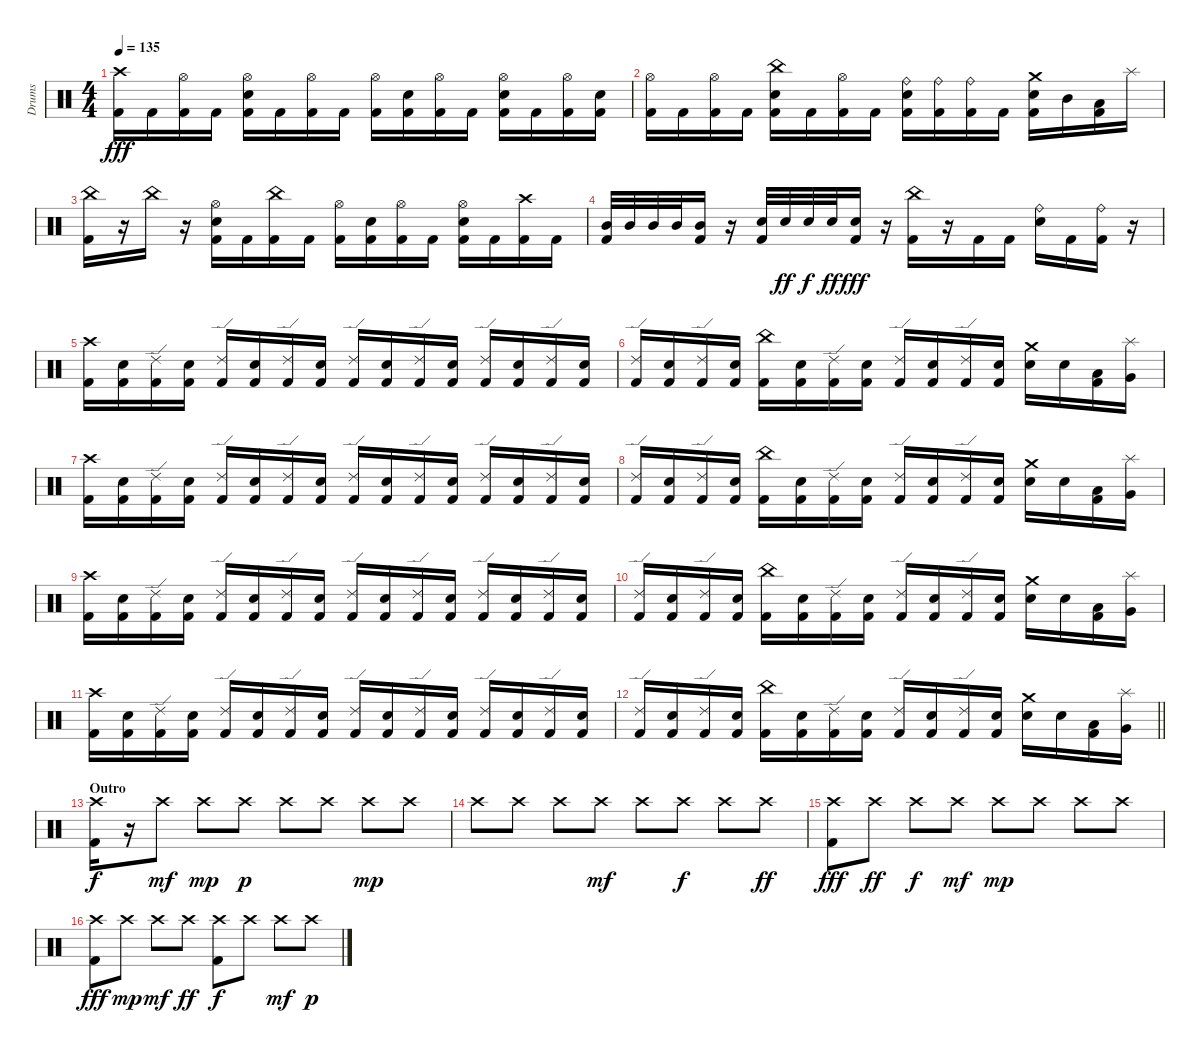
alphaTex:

\track ("Drums" "Drums") {instrument percussion}
\staff {score}
\articulation defaults
\ts (4 4)
\tempo 135
\clef neutral
\ks c
("Kick (hit) 2" "Crash high (hit)").16{dy fff} "Kick (hit) 2".16 ("Kick (hit) 2" "Hi-Hat (open)").16 "Kick (hit) 2".16 ("Kick (hit) 2" "Snare (hit) 2" "Hi-Hat (open)").16 "Kick (hit) 2".16 ("Kick (hit) 2" "Hi-Hat (open)").16 "Kick (hit) 2".16 ("Kick (hit) 2" "Hi-Hat (open)").16 ("Kick (hit) 2" "Snare (hit) 2").16 ("Kick (hit) 2" "Hi-Hat (open)").16 "Kick (hit) 2".16 ("Kick (hit) 2" "Snare (hit) 2" "Hi-Hat (open)").16 "Kick (hit) 2".16 ("Kick (hit) 2" "Hi-Hat (open)").16 ("Kick (hit) 2" "Snare (hit) 2").16 |
("Kick (hit) 2" "Hi-Hat (open)").16 "Kick (hit) 2".16 ("Kick (hit) 2" "Hi-Hat (open)").16 "Kick (hit) 2".16 ("Kick (hit) 2" "Snare (hit) 2" "China (hit)").16 "Kick (hit) 2".16 ("Kick (hit) 2" "Hi-Hat (open)").16 "Kick (hit) 2".16 ("Kick (hit) 2" "Snare (hit) 2" "Ride (bell)").16 ("Kick (hit) 2" "Ride (bell)").16 ("Kick (hit) 2" "Ride (bell)").16 "Kick (hit) 2".16 ("Kick (hit) 2" "Snare (hit) 2" "Crash medium (hit)").16 "Mid Tom (hit)".16 ("Kick (hit) 2" "Low Tom (hit)").16 "Splash (hit)".16 |
("Kick (hit) 2" "China (hit)").16 r.16 "China (hit)".16 r.16 ("Kick (hit) 2" "Snare (hit) 2" "Hi-Hat (open)").16 "Kick (hit) 2".16 ("Kick (hit) 2" "China (hit)").16 "Kick (hit) 2".16 ("Kick (hit) 2" "Hi-Hat (open)").16 ("Kick (hit) 2" "Snare (hit) 2").16 ("Kick (hit) 2" "Hi-Hat (open)").16 "Kick (hit) 2".16 ("Kick (hit) 2" "Snare (hit) 2" "Hi-Hat (open)").16 "Kick (hit) 2".16 ("Kick (hit) 2" "Crash high (hit)").16 "Kick (hit) 2".16 |
("Kick (hit) 2" "Mid Tom (hit)").32 "Mid Tom (hit)".32 "Mid Tom (hit)".32 "Mid Tom (hit)".32 ("Kick (hit) 2" "Mid Tom (hit)").16 r.16 ("Kick (hit) 2" "Snare (hit) 2").32 "Snare (hit) 2".32{dy ff} "Snare (hit) 2".32{dy f} "Snare (hit) 2".32{dy ff} ("Kick (hit) 2" "Snare (hit) 2").16{dy fff} r.16 ("Kick (hit) 2" "China (hit)").16 r.16 "Kick (hit) 2".16 "Kick (hit) 2".16 ("Snare (hit) 2" "Ride (bell)").16 "Kick (hit) 2".16 ("Kick (hit) 2" "Ride (bell)").16 r.16 |
("Kick (hit) 2" "Crash high (hit)").16 ("Kick (hit) 2" "Snare (hit) 2").16 ("Kick (hit) 2" "Ride (edge) 2").16 ("Kick (hit) 2" "Snare (hit) 2").16 ("Kick (hit) 2" "Ride (edge) 2").16 ("Kick (hit) 2" "Snare (hit) 2").16 ("Kick (hit) 2" "Ride (edge) 2").16 ("Kick (hit) 2" "Snare (hit) 2").16 ("Kick (hit) 2" "Ride (edge) 2").16 ("Kick (hit) 2" "Snare (hit) 2").16 ("Kick (hit) 2" "Ride (edge) 2").16 ("Kick (hit) 2" "Snare (hit) 2").16 ("Kick (hit) 2" "Ride (edge) 2").16 ("Kick (hit) 2" "Snare (hit) 2").16 ("Kick (hit) 2" "Ride (edge) 2").16 ("Kick (hit) 2" "Snare (hit) 2").16 |
("Kick (hit) 2" "Ride (edge) 2").16 ("Kick (hit) 2" "Snare (hit) 2").16 ("Kick (hit) 2" "Ride (edge) 2").16 ("Kick (hit) 2" "Snare (hit) 2").16 ("Kick (hit) 2" "China (hit)").16 ("Kick (hit) 2" "Snare (hit) 2").16 ("Kick (hit) 2" "Ride (edge) 2").16 ("Kick (hit) 2" "Snare (hit) 2").16 ("Kick (hit) 2" "Ride (edge) 2").16 ("Kick (hit) 2" "Snare (hit) 2").16 ("Kick (hit) 2" "Ride (edge) 2").16 ("Kick (hit) 2" "Snare (hit) 2").16 ("Snare (hit) 2" "Crash medium (hit)").16 "Snare (hit) 2".16 ("Kick (hit) 2" "Low Tom (hit)").16 ("Very Low Tom (hit)" "Splash (hit)").16 |
("Kick (hit) 2" "Crash high (hit)").16 ("Kick (hit) 2" "Snare (hit) 2").16 ("Kick (hit) 2" "Ride (edge) 2").16 ("Kick (hit) 2" "Snare (hit) 2").16 ("Kick (hit) 2" "Ride (edge) 2").16 ("Kick (hit) 2" "Snare (hit) 2").16 ("Kick (hit) 2" "Ride (edge) 2").16 ("Kick (hit) 2" "Snare (hit) 2").16 ("Kick (hit) 2" "Ride (edge) 2").16 ("Kick (hit) 2" "Snare (hit) 2").16 ("Kick (hit) 2" "Ride (edge) 2").16 ("Kick (hit) 2" "Snare (hit) 2").16 ("Kick (hit) 2" "Ride (edge) 2").16 ("Kick (hit) 2" "Snare (hit) 2").16 ("Kick (hit) 2" "Ride (edge) 2").16 ("Kick (hit) 2" "Snare (hit) 2").16 |
("Kick (hit) 2" "Ride (edge) 2").16 ("Kick (hit) 2" "Snare (hit) 2").16 ("Kick (hit) 2" "Ride (edge) 2").16 ("Kick (hit) 2" "Snare (hit) 2").16 ("Kick (hit) 2" "China (hit)").16 ("Kick (hit) 2" "Snare (hit) 2").16 ("Kick (hit) 2" "Ride (edge) 2").16 ("Kick (hit) 2" "Snare (hit) 2").16 ("Kick (hit) 2" "Ride (edge) 2").16 ("Kick (hit) 2" "Snare (hit) 2").16 ("Kick (hit) 2" "Ride (edge) 2").16 ("Kick (hit) 2" "Snare (hit) 2").16 ("Snare (hit) 2" "Crash medium (hit)").16 "Snare (hit) 2".16 ("Kick (hit) 2" "Low Tom (hit)").16 ("Very Low Tom (hit)" "Splash (hit)").16 |
("Kick (hit) 2" "Crash high (hit)").16 ("Kick (hit) 2" "Snare (hit) 2").16 ("Kick (hit) 2" "Ride (edge) 2").16 ("Kick (hit) 2" "Snare (hit) 2").16 ("Kick (hit) 2" "Ride (edge) 2").16 ("Kick (hit) 2" "Snare (hit) 2").16 ("Kick (hit) 2" "Ride (edge) 2").16 ("Kick (hit) 2" "Snare (hit) 2").16 ("Kick (hit) 2" "Ride (edge) 2").16 ("Kick (hit) 2" "Snare (hit) 2").16 ("Kick (hit) 2" "Ride (edge) 2").16 ("Kick (hit) 2" "Snare (hit) 2").16 ("Kick (hit) 2" "Ride (edge) 2").16 ("Kick (hit) 2" "Snare (hit) 2").16 ("Kick (hit) 2" "Ride (edge) 2").16 ("Kick (hit) 2" "Snare (hit) 2").16 |
("Kick (hit) 2" "Ride (edge) 2").16 ("Kick (hit) 2" "Snare (hit) 2").16 ("Kick (hit) 2" "Ride (edge) 2").16 ("Kick (hit) 2" "Snare (hit) 2").16 ("Kick (hit) 2" "China (hit)").16 ("Kick (hit) 2" "Snare (hit) 2").16 ("Kick (hit) 2" "Ride (edge) 2").16 ("Kick (hit) 2" "Snare (hit) 2").16 ("Kick (hit) 2" "Ride (edge) 2").16 ("Kick (hit) 2" "Snare (hit) 2").16 ("Kick (hit) 2" "Ride (edge) 2").16 ("Kick (hit) 2" "Snare (hit) 2").16 ("Snare (hit) 2" "Crash medium (hit)").16 "Snare (hit) 2".16 ("Kick (hit) 2" "Low Tom (hit)").16 ("Very Low Tom (hit)" "Splash (hit)").16 |
("Kick (hit) 2" "Crash high (hit)").16 ("Kick (hit) 2" "Snare (hit) 2").16 ("Kick (hit) 2" "Ride (edge) 2").16 ("Kick (hit) 2" "Snare (hit) 2").16 ("Kick (hit) 2" "Ride (edge) 2").16 ("Kick (hit) 2" "Snare (hit) 2").16 ("Kick (hit) 2" "Ride (edge) 2").16 ("Kick (hit) 2" "Snare (hit) 2").16 ("Kick (hit) 2" "Ride (edge) 2").16 ("Kick (hit) 2" "Snare (hit) 2").16 ("Kick (hit) 2" "Ride (edge) 2").16 ("Kick (hit) 2" "Snare (hit) 2").16 ("Kick (hit) 2" "Ride (edge) 2").16 ("Kick (hit) 2" "Snare (hit) 2").16 ("Kick (hit) 2" "Ride (edge) 2").16 ("Kick (hit) 2" "Snare (hit) 2").16 |
\barLineRight lightlight
("Kick (hit) 2" "Ride (edge) 2").16 ("Kick (hit) 2" "Snare (hit) 2").16 ("Kick (hit) 2" "Ride (edge) 2").16 ("Kick (hit) 2" "Snare (hit) 2").16 ("Kick (hit) 2" "China (hit)").16 ("Kick (hit) 2" "Snare (hit) 2").16 ("Kick (hit) 2" "Ride (edge) 2").16 ("Kick (hit) 2" "Snare (hit) 2").16 ("Kick (hit) 2" "Ride (edge) 2").16 ("Kick (hit) 2" "Snare (hit) 2").16 ("Kick (hit) 2" "Ride (edge) 2").16 ("Kick (hit) 2" "Snare (hit) 2").16 ("Snare (hit) 2" "Crash medium (hit)").16 "Snare (hit) 2".16 ("Kick (hit) 2" "Low Tom (hit)").16 ("Very Low Tom (hit)" "Splash (hit)").16 |
\section ("" "Outro")
("Kick (hit) 2" "Crash high (hit)").16{dy f} r.16 "Crash high (hit)".8{dy mf} "Crash high (hit)".8{dy mp} "Crash high (hit)".8{dy p} "Crash high (hit)".8 "Crash high (hit)".8 "Crash high (hit)".8{dy mp} "Crash high (hit)".8 |
"Crash high (hit)".8 "Crash high (hit)".8 "Crash high (hit)".8 "Crash high (hit)".8{dy mf} "Crash high (hit)".8 "Crash high (hit)".8{dy f} "Crash high (hit)".8 "Crash high (hit)".8{dy ff} |
("Kick (hit) 2" "Crash high (hit)").8{dy fff} "Crash high (hit)".8{dy ff} "Crash high (hit)".8{dy f} "Crash high (hit)".8{dy mf} "Crash high (hit)".8{dy mp} "Crash high (hit)".8 "Crash high (hit)".8 "Crash high (hit)".8 |
("Kick (hit) 2" "Crash high (hit)").8{dy fff} "Crash high (hit)".8{dy mp} "Crash high (hit)".8{dy mf} "Crash high (hit)".8{dy ff} ("Kick (hit) 2" "Crash high (hit)").8{dy f} "Crash high (hit)".8 "Crash high (hit)".8{dy mf} "Crash high (hit)".8{dy p}
